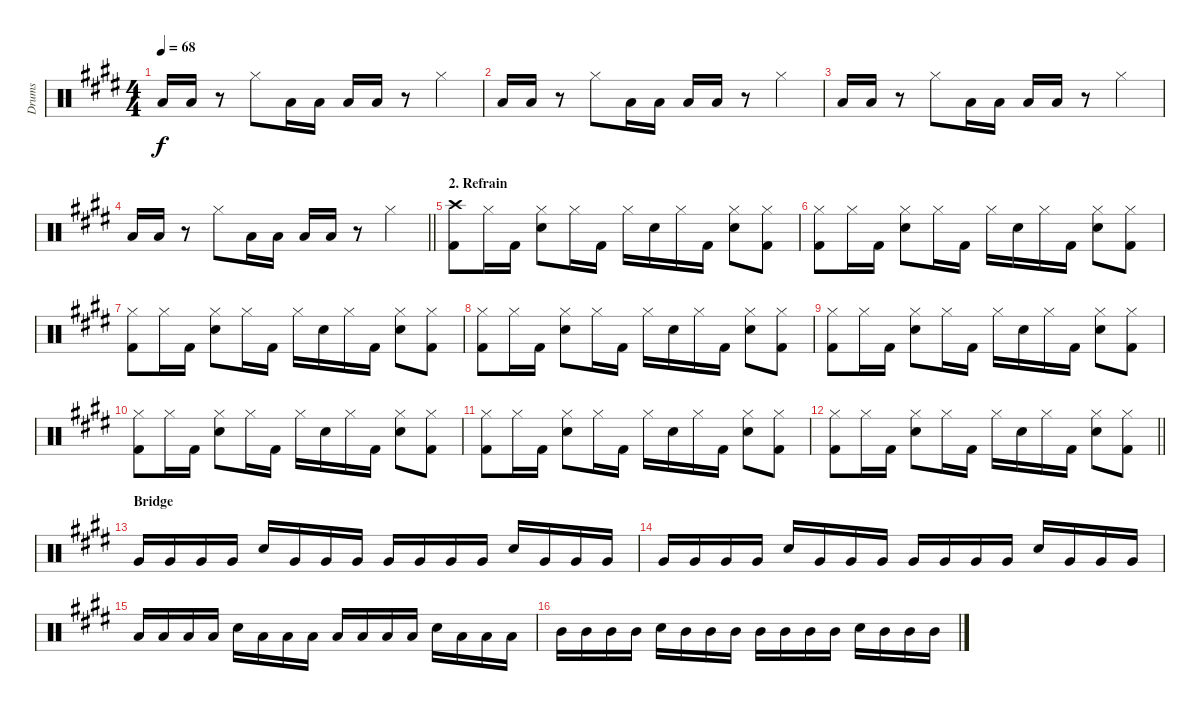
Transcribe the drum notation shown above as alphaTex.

\track ("Drums" "Drums") {instrument percussion}
\staff {score}
\articulation defaults
\ts (4 4)
\tempo 68
\clef neutral
\ks e "Low Floor Tom (hit)".16{dy f} "Low Floor Tom (hit)".16
r.8 "Hi-Hat (closed)".8 "Low Floor Tom (hit)".16 "Low Floor Tom (hit)".16 "Low Floor Tom (hit)".16 "Low Floor Tom (hit)".16 r.8 "Hi-Hat (closed)".4 |
"Low Floor Tom (hit)".16 "Low Floor Tom (hit)".16 r.8 "Hi-Hat (closed)".8 "Low Floor Tom (hit)".16 "Low Floor Tom (hit)".16 "Low Floor Tom (hit)".16 "Low Floor Tom (hit)".16 r.8 "Hi-Hat (closed)".4 |
"Low Floor Tom (hit)".16 "Low Floor Tom (hit)".16 r.8 "Hi-Hat (closed)".8 "Low Floor Tom (hit)".16 "Low Floor Tom (hit)".16 "Low Floor Tom (hit)".16 "Low Floor Tom (hit)".16 r.8 "Hi-Hat (closed)".4 |
\barLineRight lightlight "Low Floor Tom (hit)".16 "Low Floor Tom (hit)".16
r.8 "Hi-Hat (closed)".8 "Low Floor Tom (hit)".16 "Low Floor Tom (hit)".16 "Low Floor Tom (hit)".16 "Low Floor Tom (hit)".16 r.8 "Hi-Hat (closed)".4 |
\section ("" "2. Refrain")
("Crash high (hit)" "Kick (hit) 2").8 "Hi-Hat (closed)".16 "Kick (hit) 2".16 ("Snare (hit) 2" "Hi-Hat (closed)").8 "Hi-Hat (closed)".16 "Kick (hit) 2".16 "Hi-Hat (closed)".16 "Snare (hit) 2".16 "Hi-Hat (closed)".16 "Kick (hit) 2".16 ("Hi-Hat (closed)" "Snare (hit) 2").8 ("Hi-Hat (closed)" "Kick (hit) 2").8 |
("Hi-Hat (closed)" "Kick (hit) 2").8 "Hi-Hat (closed)".16 "Kick (hit) 2".16 ("Snare (hit) 2" "Hi-Hat (closed)").8 "Hi-Hat (closed)".16 "Kick (hit) 2".16 "Hi-Hat (closed)".16 "Snare (hit) 2".16 "Hi-Hat (closed)".16 "Kick (hit) 2".16 ("Hi-Hat (closed)" "Snare (hit) 2").8 ("Hi-Hat (closed)" "Kick (hit) 2").8 |
("Hi-Hat (closed)" "Kick (hit) 2").8 "Hi-Hat (closed)".16 "Kick (hit) 2".16 ("Snare (hit) 2" "Hi-Hat (closed)").8 "Hi-Hat (closed)".16 "Kick (hit) 2".16 "Hi-Hat (closed)".16 "Snare (hit) 2".16 "Hi-Hat (closed)".16 "Kick (hit) 2".16 ("Hi-Hat (closed)" "Snare (hit) 2").8 ("Hi-Hat (closed)" "Kick (hit) 2").8 |
("Hi-Hat (closed)" "Kick (hit) 2").8 "Hi-Hat (closed)".16 "Kick (hit) 2".16 ("Snare (hit) 2" "Hi-Hat (closed)").8 "Hi-Hat (closed)".16 "Kick (hit) 2".16 "Hi-Hat (closed)".16 "Snare (hit) 2".16 "Hi-Hat (closed)".16 "Kick (hit) 2".16 ("Hi-Hat (closed)" "Snare (hit) 2").8 ("Hi-Hat (closed)" "Kick (hit) 2").8 |
("Hi-Hat (closed)" "Kick (hit) 2").8 "Hi-Hat (closed)".16 "Kick (hit) 2".16 ("Snare (hit) 2" "Hi-Hat (closed)").8 "Hi-Hat (closed)".16 "Kick (hit) 2".16 "Hi-Hat (closed)".16 "Snare (hit) 2".16 "Hi-Hat (closed)".16 "Kick (hit) 2".16 ("Hi-Hat (closed)" "Snare (hit) 2").8 ("Hi-Hat (closed)" "Kick (hit) 2").8 |
("Hi-Hat (closed)" "Kick (hit) 2").8 "Hi-Hat (closed)".16 "Kick (hit) 2".16 ("Snare (hit) 2" "Hi-Hat (closed)").8 "Hi-Hat (closed)".16 "Kick (hit) 2".16 "Hi-Hat (closed)".16 "Snare (hit) 2".16 "Hi-Hat (closed)".16 "Kick (hit) 2".16 ("Hi-Hat (closed)" "Snare (hit) 2").8 ("Hi-Hat (closed)" "Kick (hit) 2").8 |
("Hi-Hat (closed)" "Kick (hit) 2").8 "Hi-Hat (closed)".16 "Kick (hit) 2".16 ("Snare (hit) 2" "Hi-Hat (closed)").8 "Hi-Hat (closed)".16 "Kick (hit) 2".16 "Hi-Hat (closed)".16 "Snare (hit) 2".16 "Hi-Hat (closed)".16 "Kick (hit) 2".16 ("Hi-Hat (closed)" "Snare (hit) 2").8 ("Hi-Hat (closed)" "Kick (hit) 2").8 |
\barLineRight lightlight
("Hi-Hat (closed)" "Kick (hit) 2").8 "Hi-Hat (closed)".16 "Kick (hit) 2".16 ("Snare (hit) 2" "Hi-Hat (closed)").8 "Hi-Hat (closed)".16 "Kick (hit) 2".16 "Hi-Hat (closed)".16 "Snare (hit) 2".16 "Hi-Hat (closed)".16 "Kick (hit) 2".16 ("Hi-Hat (closed)" "Snare (hit) 2").8 ("Hi-Hat (closed)" "Kick (hit) 2").8 |
\section ("" "Bridge")
"Very Low Tom (hit)".16 "Very Low Tom (hit)".16 "Very Low Tom (hit)".16 "Very Low Tom (hit)".16 "Snare (hit) 2".16 "Very Low Tom (hit)".16 "Very Low Tom (hit)".16 "Very Low Tom (hit)".16 "Very Low Tom (hit)".16 "Very Low Tom (hit)".16 "Very Low Tom (hit)".16 "Very Low Tom (hit)".16 "Snare (hit) 2".16 "Very Low Tom (hit)".16 "Very Low Tom (hit)".16 "Very Low Tom (hit)".16 |
"Very Low Tom (hit)".16 "Very Low Tom (hit)".16 "Very Low Tom (hit)".16 "Very Low Tom (hit)".16 "Snare (hit) 2".16 "Very Low Tom (hit)".16 "Very Low Tom (hit)".16 "Very Low Tom (hit)".16 "Very Low Tom (hit)".16 "Very Low Tom (hit)".16 "Very Low Tom (hit)".16 "Very Low Tom (hit)".16 "Snare (hit) 2".16 "Very Low Tom (hit)".16 "Very Low Tom (hit)".16 "Very Low Tom (hit)".16 |
"Low Tom (hit)".16 "Low Tom (hit)".16 "Low Tom (hit)".16 "Low Tom (hit)".16 "Snare (hit) 2".16 "Low Tom (hit)".16 "Low Tom (hit)".16 "Low Tom (hit)".16 "Low Tom (hit)".16 "Low Tom (hit)".16 "Low Tom (hit)".16 "Low Tom (hit)".16 "Snare (hit) 2".16 "Low Tom (hit)".16 "Low Tom (hit)".16 "Low Tom (hit)".16 |
"Mid Tom (hit)".16 "Mid Tom (hit)".16 "Mid Tom (hit)".16 "Mid Tom (hit)".16 "Snare (hit) 2".16 "Mid Tom (hit)".16 "Mid Tom (hit)".16 "Mid Tom (hit)".16 "Mid Tom (hit)".16 "Mid Tom (hit)".16 "Mid Tom (hit)".16 "Mid Tom (hit)".16 "Snare (hit) 2".16 "Mid Tom (hit)".16 "Mid Tom (hit)".16 "Mid Tom (hit)".16
